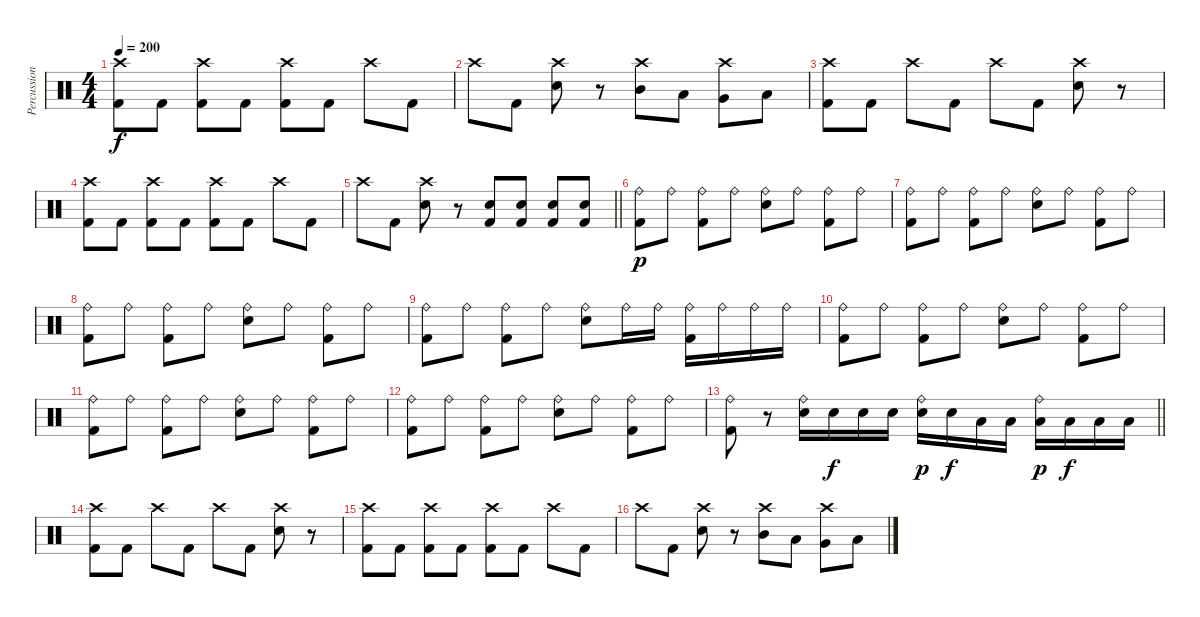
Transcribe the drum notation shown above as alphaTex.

\track ("Percussion" "Percussion") {instrument percussion}
\staff {score}
\articulation defaults
\ts (4 4)
\tempo 200
\clef neutral
\ks c
("Crash high (hit)" "Kick (hit) 2").8{dy f} "Kick (hit) 2".8 ("Crash high (hit)" "Kick (hit) 2").8 "Kick (hit) 2".8 ("Crash high (hit)" "Kick (hit) 2").8 "Kick (hit) 2".8 "Crash high (hit)".8 "Kick (hit) 2".8 |
"Crash high (hit)".8 "Kick (hit) 2".8 ("Crash high (hit)" "Electric Snare (hit)").8 r.8 ("Crash high (hit)" "Mid Tom (hit)").8 "Low Tom (hit)".8 ("Crash high (hit)" "Very Low Tom (hit)").8 "Low Floor Tom (hit)".8 |
("Crash high (hit)" "Kick (hit) 2").8 "Kick (hit) 2".8 "Crash high (hit)".8 "Kick (hit) 2".8 "Crash high (hit)".8 "Kick (hit) 2".8 ("Crash high (hit)" "Electric Snare (hit)").8 r.8 |
("Crash high (hit)" "Kick (hit) 2").8 "Kick (hit) 2".8 ("Crash high (hit)" "Kick (hit) 2").8 "Kick (hit) 2".8 ("Crash high (hit)" "Kick (hit) 2").8 "Kick (hit) 2".8 "Crash high (hit)".8 "Kick (hit) 2".8 |
\barLineRight lightlight "Crash high (hit)".8 "Kick (hit) 2".8
("Crash high (hit)" "Electric Snare (hit)").8 r.8 ("Electric Snare (hit)" "Kick (hit) 2").8 ("Electric Snare (hit)" "Kick (hit) 2").8 ("Electric Snare (hit)" "Kick (hit) 2").8 ("Electric Snare (hit)" "Kick (hit) 2").8 |
("Ride (bell)" "Kick (hit) 2").8{dy p} "Ride (bell)".8 ("Ride (bell)" "Kick (hit) 2").8 "Ride (bell)".8 ("Ride (bell)" "Electric Snare (hit)").8 "Ride (bell)".8 ("Ride (bell)" "Kick (hit) 2").8 "Ride (bell)".8 |
("Ride (bell)" "Kick (hit) 2").8 "Ride (bell)".8 ("Ride (bell)" "Kick (hit) 2").8 "Ride (bell)".8 ("Ride (bell)" "Electric Snare (hit)").8 "Ride (bell)".8 ("Ride (bell)" "Kick (hit) 2").8 "Ride (bell)".8 |
("Ride (bell)" "Kick (hit) 2").8 "Ride (bell)".8 ("Ride (bell)" "Kick (hit) 2").8 "Ride (bell)".8 ("Ride (bell)" "Electric Snare (hit)").8 "Ride (bell)".8 ("Ride (bell)" "Kick (hit) 2").8 "Ride (bell)".8 |
("Ride (bell)" "Kick (hit) 2").8 "Ride (bell)".8 ("Ride (bell)" "Kick (hit) 2").8 "Ride (bell)".8 ("Ride (bell)" "Electric Snare (hit)").8 "Ride (bell)".16 "Ride (bell)".16 ("Ride (bell)" "Kick (hit) 2").16 "Ride (bell)".16 "Ride (bell)".16 "Ride (bell)".16 |
("Ride (bell)" "Kick (hit) 2").8 "Ride (bell)".8 ("Ride (bell)" "Kick (hit) 2").8 "Ride (bell)".8 ("Ride (bell)" "Electric Snare (hit)").8 "Ride (bell)".8 ("Ride (bell)" "Kick (hit) 2").8 "Ride (bell)".8 |
("Ride (bell)" "Kick (hit) 2").8 "Ride (bell)".8 ("Ride (bell)" "Kick (hit) 2").8 "Ride (bell)".8 ("Ride (bell)" "Electric Snare (hit)").8 "Ride (bell)".8 ("Ride (bell)" "Kick (hit) 2").8 "Ride (bell)".8 |
("Ride (bell)" "Kick (hit) 2").8 "Ride (bell)".8 ("Ride (bell)" "Kick (hit) 2").8 "Ride (bell)".8 ("Ride (bell)" "Electric Snare (hit)").8 "Ride (bell)".8 ("Ride (bell)" "Kick (hit) 2").8 "Ride (bell)".8 |
\barLineRight lightlight
("Ride (bell)" "Kick (hit) 2").8 r.8 ("Ride (bell)" "Electric Snare (hit)").16 "Electric Snare (hit)".16{dy f} "Electric Snare (hit)".16 "Electric Snare (hit)".16 ("Ride (bell)" "Electric Snare (hit)").16{dy p} "Electric Snare (hit)".16{dy f} "Low Floor Tom (hit)".16 "Low Floor Tom (hit)".16 ("Ride (bell)" "Low Floor Tom (hit)").16{dy p} "Low Floor Tom (hit)".16{dy f} "Low Floor Tom (hit)".16 "Low Floor Tom (hit)".16 |
("Crash high (hit)" "Kick (hit) 2").8 "Kick (hit) 2".8 "Crash high (hit)".8 "Kick (hit) 2".8 "Crash high (hit)".8 "Kick (hit) 2".8 ("Crash high (hit)" "Electric Snare (hit)").8 r.8 |
("Crash high (hit)" "Kick (hit) 2").8 "Kick (hit) 2".8 ("Crash high (hit)" "Kick (hit) 2").8 "Kick (hit) 2".8 ("Crash high (hit)" "Kick (hit) 2").8 "Kick (hit) 2".8 "Crash high (hit)".8 "Kick (hit) 2".8 |
"Crash high (hit)".8 "Kick (hit) 2".8 ("Crash high (hit)" "Electric Snare (hit)").8 r.8 ("Crash high (hit)" "Mid Tom (hit)").8 "Low Tom (hit)".8 ("Crash high (hit)" "Very Low Tom (hit)").8 "Low Floor Tom (hit)".8
